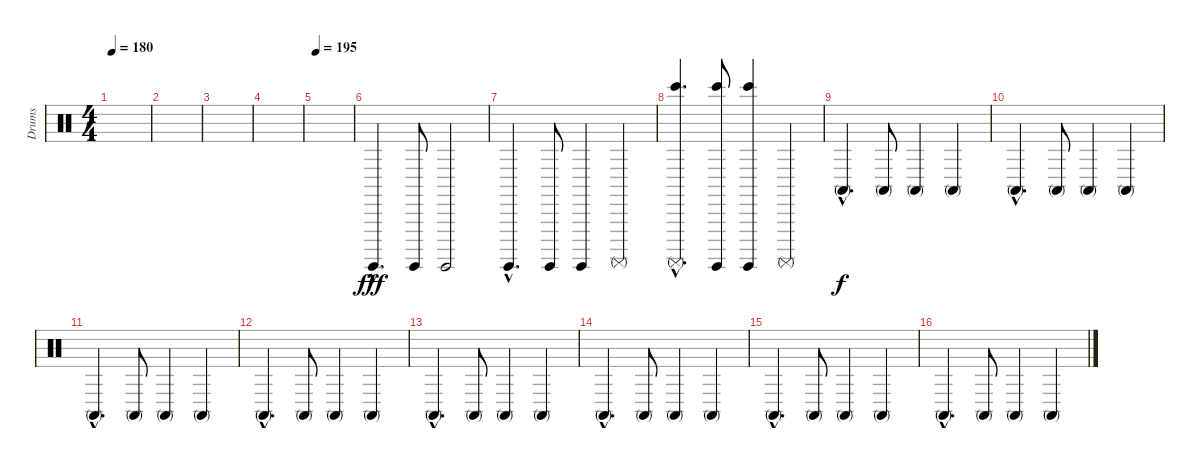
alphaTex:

\track ("Drums" "Drums") {instrument percussion}
\staff {score}
\articulation defaults
\ts (4 4)
\tempo 180
\clef neutral
\ks c
|
|
|
|
\tempo 195
|
"Surdo (hit)"{hac}.4{d dy fff} "Surdo (hit)".8 "Surdo (hit)".2 |
"Surdo (hit)"{hac}.4{d} "Surdo (hit)".8 "Surdo (hit)".4 "Surdo (mute)".4 |
("Surdo (mute)"{hac} "Bongo High (hit)"{hac}).4{d} ("Surdo (hit)" "Bongo High (hit)").8 ("Surdo (hit)" "Bongo High (hit)").4 "Surdo (mute)".4 |
"Conga high (mute)"{hac}.4{d dy f} "Conga high (mute)".8 "Conga high (mute)".4 "Conga high (mute)".4 |
"Conga high (mute)"{hac}.4{d} "Conga high (mute)".8 "Conga high (mute)".4 "Conga high (mute)".4 |
"Conga high (mute)"{hac}.4{d} "Conga high (mute)".8 "Conga high (mute)".4 "Conga high (mute)".4 |
"Conga high (mute)"{hac}.4{d} "Conga high (mute)".8 "Conga high (mute)".4 "Conga high (mute)".4 |
"Conga high (mute)"{hac}.4{d} "Conga high (mute)".8 "Conga high (mute)".4 "Conga high (mute)".4 |
"Conga high (mute)"{hac}.4{d} "Conga high (mute)".8 "Conga high (mute)".4 "Conga high (mute)".4 |
"Conga high (mute)"{hac}.4{d} "Conga high (mute)".8 "Conga high (mute)".4 "Conga high (mute)".4 |
"Conga high (mute)"{hac}.4{d} "Conga high (mute)".8 "Conga high (mute)".4 "Conga high (mute)".4
